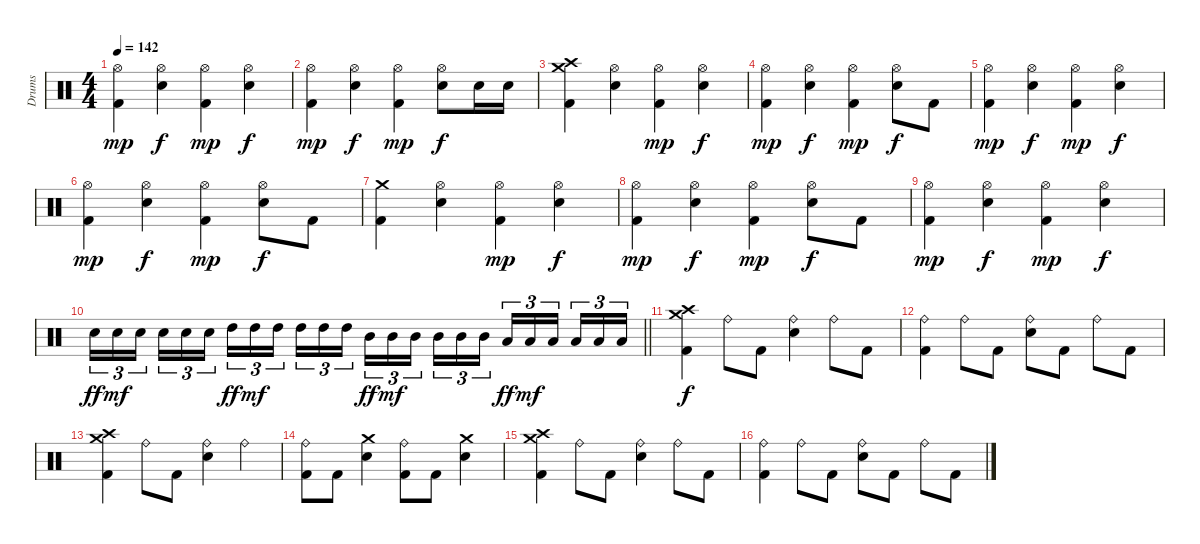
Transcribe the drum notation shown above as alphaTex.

\track ("Drums" "Drums") {instrument percussion}
\staff {score}
\articulation defaults
\ts (4 4)
\tempo 142
\clef neutral
\ks c
("Hi-Hat (open)" "Kick (hit) 2").4{dy mp} ("Hi-Hat (open)" "Electric Snare (hit)").4{dy f} ("Hi-Hat (open)" "Kick (hit) 2").4{dy mp} ("Hi-Hat (open)" "Electric Snare (hit)").4{dy f} |
("Hi-Hat (open)" "Kick (hit) 2").4{dy mp} ("Hi-Hat (open)" "Electric Snare (hit)").4{dy f} ("Hi-Hat (open)" "Kick (hit) 2").4{dy mp} ("Hi-Hat (open)" "Electric Snare (hit)").8{dy f} "Electric Snare (hit)".16 "Electric Snare (hit)".16 |
("Crash high (hit)" "Crash medium (hit)" "Kick (hit) 2").4 ("Hi-Hat (open)" "Electric Snare (hit)").4 ("Hi-Hat (open)" "Kick (hit) 2").4{dy mp} ("Hi-Hat (open)" "Electric Snare (hit)").4{dy f} |
("Hi-Hat (open)" "Kick (hit) 2").4{dy mp} ("Hi-Hat (open)" "Electric Snare (hit)").4{dy f} ("Hi-Hat (open)" "Kick (hit) 2").4{dy mp} ("Hi-Hat (open)" "Electric Snare (hit)").8{dy f} "Kick (hit) 2".8 |
("Hi-Hat (open)" "Kick (hit) 2").4{dy mp} ("Hi-Hat (open)" "Electric Snare (hit)").4{dy f} ("Hi-Hat (open)" "Kick (hit) 2").4{dy mp} ("Hi-Hat (open)" "Electric Snare (hit)").4{dy f} |
("Hi-Hat (open)" "Kick (hit) 2").4{dy mp} ("Hi-Hat (open)" "Electric Snare (hit)").4{dy f} ("Hi-Hat (open)" "Kick (hit) 2").4{dy mp} ("Hi-Hat (open)" "Electric Snare (hit)").8{dy f} "Kick (hit) 2".8 |
("Crash medium (hit)" "Kick (hit) 2").4 ("Hi-Hat (open)" "Electric Snare (hit)").4 ("Hi-Hat (open)" "Kick (hit) 2").4{dy mp} ("Hi-Hat (open)" "Electric Snare (hit)").4{dy f} |
("Hi-Hat (open)" "Kick (hit) 2").4{dy mp} ("Hi-Hat (open)" "Electric Snare (hit)").4{dy f} ("Hi-Hat (open)" "Kick (hit) 2").4{dy mp} ("Hi-Hat (open)" "Electric Snare (hit)").8{dy f} "Kick (hit) 2".8 |
("Hi-Hat (open)" "Kick (hit) 2").4{dy mp} ("Hi-Hat (open)" "Electric Snare (hit)").4{dy f} ("Hi-Hat (open)" "Kick (hit) 2").4{dy mp} ("Hi-Hat (open)" "Electric Snare (hit)").4{dy f} |
\barLineRight lightlight "Electric Snare (hit)".16{tu (3 2) dy ff} "Electric Snare (hit)".16{tu (3 2) dy mf} "Electric Snare (hit)".16{tu (3 2)} "Electric Snare (hit)".16{tu (3 2)} "Electric Snare (hit)".16{tu (3 2)} "Electric Snare (hit)".16{tu (3 2)} "High Tom (hit)".16{tu (3 2) dy ff} "High Tom (hit)".16{tu (3 2) dy mf} "High Tom (hit)".16{tu (3 2)} "High Tom (hit)".16{tu (3 2)} "High Tom (hit)".16{tu (3 2)} "High Tom (hit)".16{tu (3 2)} "Mid Tom (hit)".16{tu (3 2) dy ff} "Mid Tom (hit)".16{tu (3 2) dy mf} "Mid Tom (hit)".16{tu (3 2)} "Mid Tom (hit)".16{tu (3 2)} "Mid Tom (hit)".16{tu (3 2)} "Mid Tom (hit)".16{tu (3 2)} "Low Tom (hit)".16{tu (3 2) dy ff} "Low Tom (hit)".16{tu (3 2) dy mf} "Low Tom (hit)".16{tu (3 2)} "Low Tom (hit)".16{tu (3 2)} "Low Tom (hit)".16{tu (3 2)} "Low Tom (hit)".16{tu (3 2)}
|
("Crash high (hit)" "Crash medium (hit)" "Kick (hit) 2").4{dy f} "Ride (bell)".8 "Kick (hit) 2".8 ("Ride (bell)" "Electric Snare (hit)").4 "Ride (bell)".8 "Kick (hit) 2".8 |
("Ride (bell)" "Kick (hit) 2").4 "Ride (bell)".8 "Kick (hit) 2".8 ("Ride (bell)" "Electric Snare (hit)").8 "Kick (hit) 2".8 "Ride (bell)".8 "Kick (hit) 2".8 |
("Crash high (hit)" "Crash medium (hit)" "Kick (hit) 2").4 "Ride (bell)".8 "Kick (hit) 2".8 ("Ride (bell)" "Electric Snare (hit)").4 "Ride (bell)".4 |
("Ride (bell)" "Kick (hit) 2").8 "Kick (hit) 2".8 ("Crash medium (hit)" "Electric Snare (hit)").4 ("Ride (bell)" "Kick (hit) 2").8 "Kick (hit) 2".8 ("Crash medium (hit)" "Electric Snare (hit)").4 |
("Crash high (hit)" "Crash medium (hit)" "Kick (hit) 2").4 "Ride (bell)".8 "Kick (hit) 2".8 ("Ride (bell)" "Electric Snare (hit)").4 "Ride (bell)".8 "Kick (hit) 2".8 |
("Ride (bell)" "Kick (hit) 2").4 "Ride (bell)".8 "Kick (hit) 2".8 ("Ride (bell)" "Electric Snare (hit)").8 "Kick (hit) 2".8 "Ride (bell)".8 "Kick (hit) 2".8
